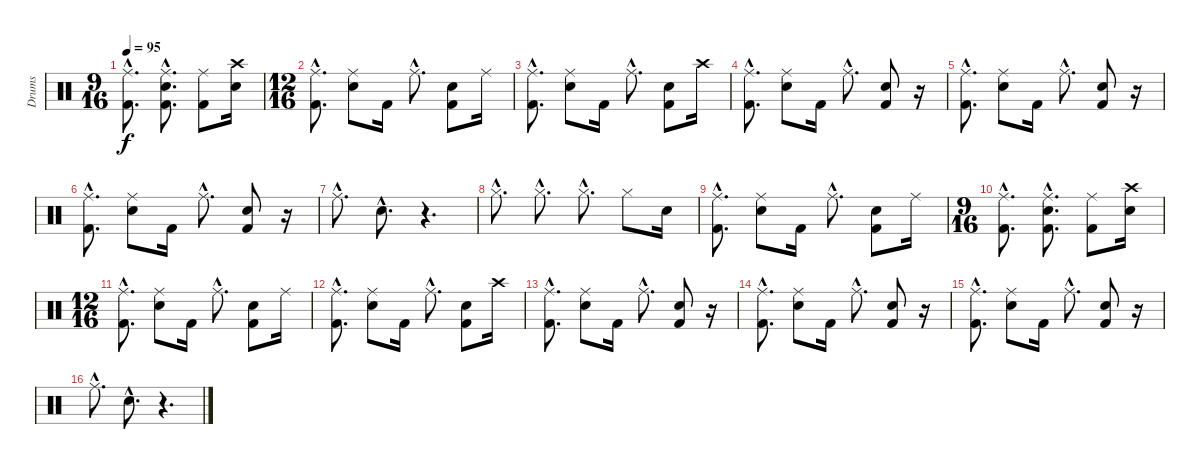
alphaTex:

\track ("Drums" "Drums") {instrument percussion}
\staff {score}
\articulation defaults
\ts (9 16)
\tempo 95
\clef neutral
\ks c
("Ride (middle)"{hac} "Kick (hit) 2"{hac}).8{d dy f} ("Ride (middle)"{hac} "Snare (hit) 2"{hac} "Kick (hit) 2"{hac}).8{d} ("Ride (middle)" "Kick (hit) 2").8 ("Crash high (hit)" "Snare (hit) 2").16 |
\ts (12 16)
("Kick (hit) 2"{hac} "Ride (middle)"{hac}).8{d} ("Snare (hit) 2" "Ride (middle)").8 "Kick (hit) 2".16 "Ride (middle)"{hac}.8{d} ("Kick (hit) 2" "Snare (hit) 2").8 "Ride (middle)".16 |
("Kick (hit) 2"{hac} "Ride (middle)"{hac}).8{d} ("Snare (hit) 2" "Ride (middle)").8 "Kick (hit) 2".16 "Ride (middle)"{hac}.8{d} ("Kick (hit) 2" "Snare (hit) 2").8 "Crash high (hit)".16 |
("Kick (hit) 2"{hac} "Ride (middle)"{hac}).8{d} ("Snare (hit) 2" "Ride (middle)").8 "Kick (hit) 2".16 "Ride (middle)"{hac}.8{d} ("Kick (hit) 2" "Snare (hit) 2").8 r.16 |
("Kick (hit) 2"{hac} "Ride (middle)"{hac}).8{d} ("Snare (hit) 2" "Ride (middle)").8 "Kick (hit) 2".16 "Ride (middle)"{hac}.8{d} ("Kick (hit) 2" "Snare (hit) 2").8 r.16 |
("Kick (hit) 2"{hac} "Ride (middle)"{hac}).8{d} ("Snare (hit) 2" "Ride (middle)").8 "Kick (hit) 2".16 "Ride (middle)"{hac}.8{d} ("Kick (hit) 2" "Snare (hit) 2").8 r.16 |
"Ride (middle)"{hac}.8{d} "Snare (hit) 2"{hac}.8{d} r.4{d} |
"Hi-Hat (closed)"{hac}.8{d} "Hi-Hat (closed)"{hac}.8{d} "Hi-Hat (closed)"{hac}.8{d} "Hi-Hat (closed)".8 "Snare (hit) 2".16 |
("Kick (hit) 2"{hac} "Ride (middle)"{hac}).8{d} ("Snare (hit) 2" "Ride (middle)").8 "Kick (hit) 2".16 "Ride (middle)"{hac}.8{d} ("Kick (hit) 2" "Snare (hit) 2").8 "Ride (middle)".16 |
\ts (9 16)
("Ride (middle)"{hac} "Kick (hit) 2"{hac}).8{d} ("Ride (middle)"{hac} "Snare (hit) 2"{hac} "Kick (hit) 2"{hac}).8{d} ("Ride (middle)" "Kick (hit) 2").8 ("Crash high (hit)" "Snare (hit) 2").16 |
\ts (12 16)
("Kick (hit) 2"{hac} "Ride (middle)"{hac}).8{d} ("Snare (hit) 2" "Ride (middle)").8 "Kick (hit) 2".16 "Ride (middle)"{hac}.8{d} ("Kick (hit) 2" "Snare (hit) 2").8 "Ride (middle)".16 |
("Kick (hit) 2"{hac} "Ride (middle)"{hac}).8{d} ("Snare (hit) 2" "Ride (middle)").8 "Kick (hit) 2".16 "Ride (middle)"{hac}.8{d} ("Kick (hit) 2" "Snare (hit) 2").8 "Crash high (hit)".16 |
("Kick (hit) 2"{hac} "Ride (middle)"{hac}).8{d} ("Snare (hit) 2" "Ride (middle)").8 "Kick (hit) 2".16 "Ride (middle)"{hac}.8{d} ("Kick (hit) 2" "Snare (hit) 2").8 r.16 |
("Kick (hit) 2"{hac} "Ride (middle)"{hac}).8{d} ("Snare (hit) 2" "Ride (middle)").8 "Kick (hit) 2".16 "Ride (middle)"{hac}.8{d} ("Kick (hit) 2" "Snare (hit) 2").8 r.16 |
("Kick (hit) 2"{hac} "Ride (middle)"{hac}).8{d} ("Snare (hit) 2" "Ride (middle)").8 "Kick (hit) 2".16 "Ride (middle)"{hac}.8{d} ("Kick (hit) 2" "Snare (hit) 2").8 r.16 |
"Ride (middle)"{hac}.8{d} "Snare (hit) 2"{hac}.8{d} r.4{d}
